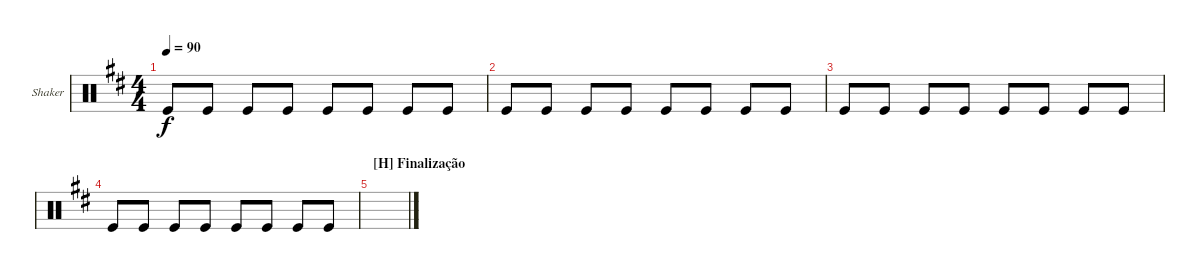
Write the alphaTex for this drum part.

\defaultSystemsLayout 4
\bracketExtendMode groupsimilarinstruments
\firstSystemTrackNameOrientation horizontal
\otherSystemsTrackNameOrientation horizontal
\track ("Shaker" "Shaker") {multiBarRest instrument percussion}
\staff {score}
\articulation defaults
\ts (4 4)
\tempo 90
\clef neutral
\ks d "Kick (hit)".8{dy f} "Kick (hit)".8 "Kick (hit)".8 "Kick (hit)".8 "Kick (hit)".8 "Kick (hit)".8 "Kick (hit)".8 "Kick (hit)".8
|
"Kick (hit)".8 "Kick (hit)".8 "Kick (hit)".8 "Kick (hit)".8 "Kick (hit)".8 "Kick (hit)".8 "Kick (hit)".8 "Kick (hit)".8 |
"Kick (hit)".8 "Kick (hit)".8 "Kick (hit)".8 "Kick (hit)".8 "Kick (hit)".8 "Kick (hit)".8 "Kick (hit)".8 "Kick (hit)".8 |
"Kick (hit)".8 "Kick (hit)".8 "Kick (hit)".8 "Kick (hit)".8 "Kick (hit)".8 "Kick (hit)".8 "Kick (hit)".8 "Kick (hit)".8 |
\section ("H" "Finalização")
